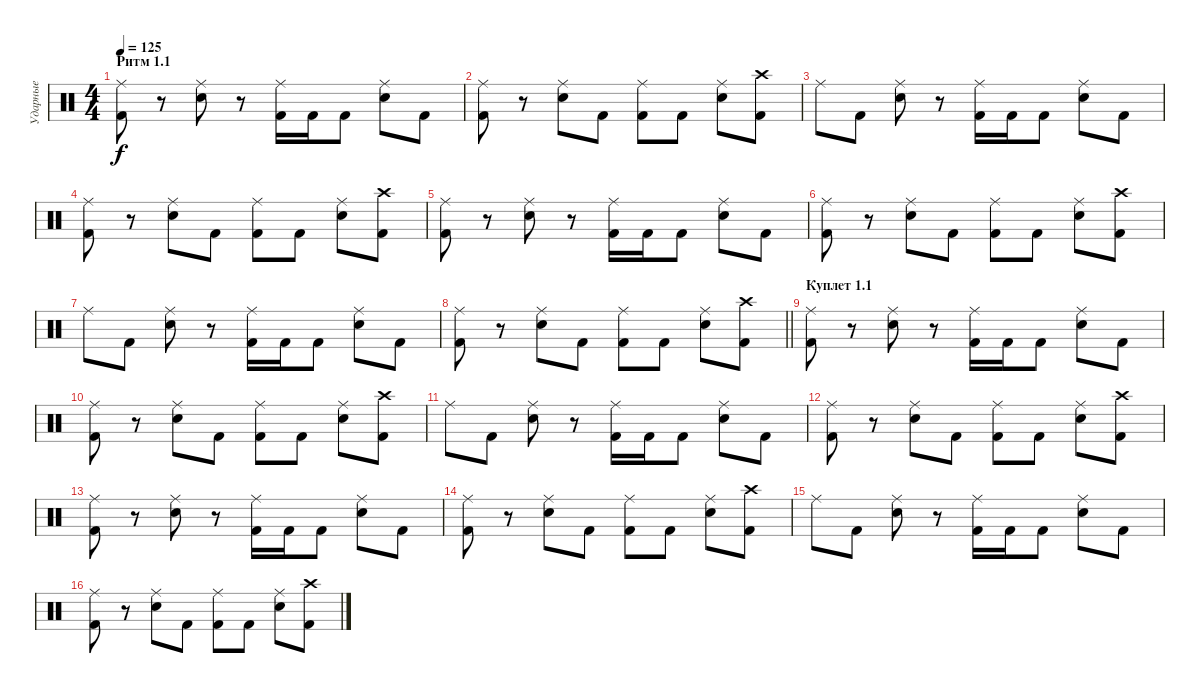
\track ("Ударные" "Ударные") {instrument percussion}
\staff {score}
\articulation defaults
\ts (4 4)
\section ("" "Ритм 1.1")
\tempo 125
\clef neutral
\ks c
("Ride (middle)" "Kick (hit) 2").8{dy f} r.8 ("Ride (middle)" "Snare (hit) 2").8 r.8 ("Ride (middle)" "Kick (hit) 2").16 "Kick (hit) 2".16 "Kick (hit) 2".8 ("Ride (middle)" "Snare (hit) 2").8 "Kick (hit) 2".8 |
("Ride (middle)" "Kick (hit) 2").8 r.8 ("Ride (middle)" "Snare (hit) 2").8 "Kick (hit) 2".8 ("Ride (middle)" "Kick (hit) 2").8 "Kick (hit) 2".8 ("Ride (middle)" "Snare (hit) 2").8 ("Crash high (hit)" "Kick (hit) 2").8 |
"Ride (middle)".8 "Kick (hit) 2".8 ("Ride (middle)" "Snare (hit) 2").8 r.8 ("Ride (middle)" "Kick (hit) 2").16 "Kick (hit) 2".16 "Kick (hit) 2".8 ("Ride (middle)" "Snare (hit) 2").8 "Kick (hit) 2".8 |
("Ride (middle)" "Kick (hit) 2").8 r.8 ("Ride (middle)" "Snare (hit) 2").8 "Kick (hit) 2".8 ("Ride (middle)" "Kick (hit) 2").8 "Kick (hit) 2".8 ("Ride (middle)" "Snare (hit) 2").8 ("Crash high (hit)" "Kick (hit) 2").8 |
("Ride (middle)" "Kick (hit) 2").8 r.8 ("Ride (middle)" "Snare (hit) 2").8 r.8 ("Ride (middle)" "Kick (hit) 2").16 "Kick (hit) 2".16 "Kick (hit) 2".8 ("Ride (middle)" "Snare (hit) 2").8 "Kick (hit) 2".8 |
("Ride (middle)" "Kick (hit) 2").8 r.8 ("Ride (middle)" "Snare (hit) 2").8 "Kick (hit) 2".8 ("Ride (middle)" "Kick (hit) 2").8 "Kick (hit) 2".8 ("Ride (middle)" "Snare (hit) 2").8 ("Crash high (hit)" "Kick (hit) 2").8 |
"Ride (middle)".8 "Kick (hit) 2".8 ("Ride (middle)" "Snare (hit) 2").8 r.8 ("Ride (middle)" "Kick (hit) 2").16 "Kick (hit) 2".16 "Kick (hit) 2".8 ("Ride (middle)" "Snare (hit) 2").8 "Kick (hit) 2".8 |
\barLineRight lightlight
("Ride (middle)" "Kick (hit) 2").8 r.8 ("Ride (middle)" "Snare (hit) 2").8 "Kick (hit) 2".8 ("Ride (middle)" "Kick (hit) 2").8 "Kick (hit) 2".8 ("Ride (middle)" "Snare (hit) 2").8 ("Crash high (hit)" "Kick (hit) 2").8 |
\section ("" "Куплет 1.1")
("Ride (middle)" "Kick (hit) 2").8 r.8 ("Ride (middle)" "Snare (hit) 2").8 r.8 ("Ride (middle)" "Kick (hit) 2").16 "Kick (hit) 2".16 "Kick (hit) 2".8 ("Ride (middle)" "Snare (hit) 2").8 "Kick (hit) 2".8 |
("Ride (middle)" "Kick (hit) 2").8 r.8 ("Ride (middle)" "Snare (hit) 2").8 "Kick (hit) 2".8 ("Ride (middle)" "Kick (hit) 2").8 "Kick (hit) 2".8 ("Ride (middle)" "Snare (hit) 2").8 ("Crash high (hit)" "Kick (hit) 2").8 |
"Ride (middle)".8 "Kick (hit) 2".8 ("Ride (middle)" "Snare (hit) 2").8 r.8 ("Ride (middle)" "Kick (hit) 2").16 "Kick (hit) 2".16 "Kick (hit) 2".8 ("Ride (middle)" "Snare (hit) 2").8 "Kick (hit) 2".8 |
("Ride (middle)" "Kick (hit) 2").8 r.8 ("Ride (middle)" "Snare (hit) 2").8 "Kick (hit) 2".8 ("Ride (middle)" "Kick (hit) 2").8 "Kick (hit) 2".8 ("Ride (middle)" "Snare (hit) 2").8 ("Crash high (hit)" "Kick (hit) 2").8 |
("Ride (middle)" "Kick (hit) 2").8 r.8 ("Ride (middle)" "Snare (hit) 2").8 r.8 ("Ride (middle)" "Kick (hit) 2").16 "Kick (hit) 2".16 "Kick (hit) 2".8 ("Ride (middle)" "Snare (hit) 2").8 "Kick (hit) 2".8 |
("Ride (middle)" "Kick (hit) 2").8 r.8 ("Ride (middle)" "Snare (hit) 2").8 "Kick (hit) 2".8 ("Ride (middle)" "Kick (hit) 2").8 "Kick (hit) 2".8 ("Ride (middle)" "Snare (hit) 2").8 ("Crash high (hit)" "Kick (hit) 2").8 |
"Ride (middle)".8 "Kick (hit) 2".8 ("Ride (middle)" "Snare (hit) 2").8 r.8 ("Ride (middle)" "Kick (hit) 2").16 "Kick (hit) 2".16 "Kick (hit) 2".8 ("Ride (middle)" "Snare (hit) 2").8 "Kick (hit) 2".8 |
("Ride (middle)" "Kick (hit) 2").8 r.8 ("Ride (middle)" "Snare (hit) 2").8 "Kick (hit) 2".8 ("Ride (middle)" "Kick (hit) 2").8 "Kick (hit) 2".8 ("Ride (middle)" "Snare (hit) 2").8 ("Crash high (hit)" "Kick (hit) 2").8
